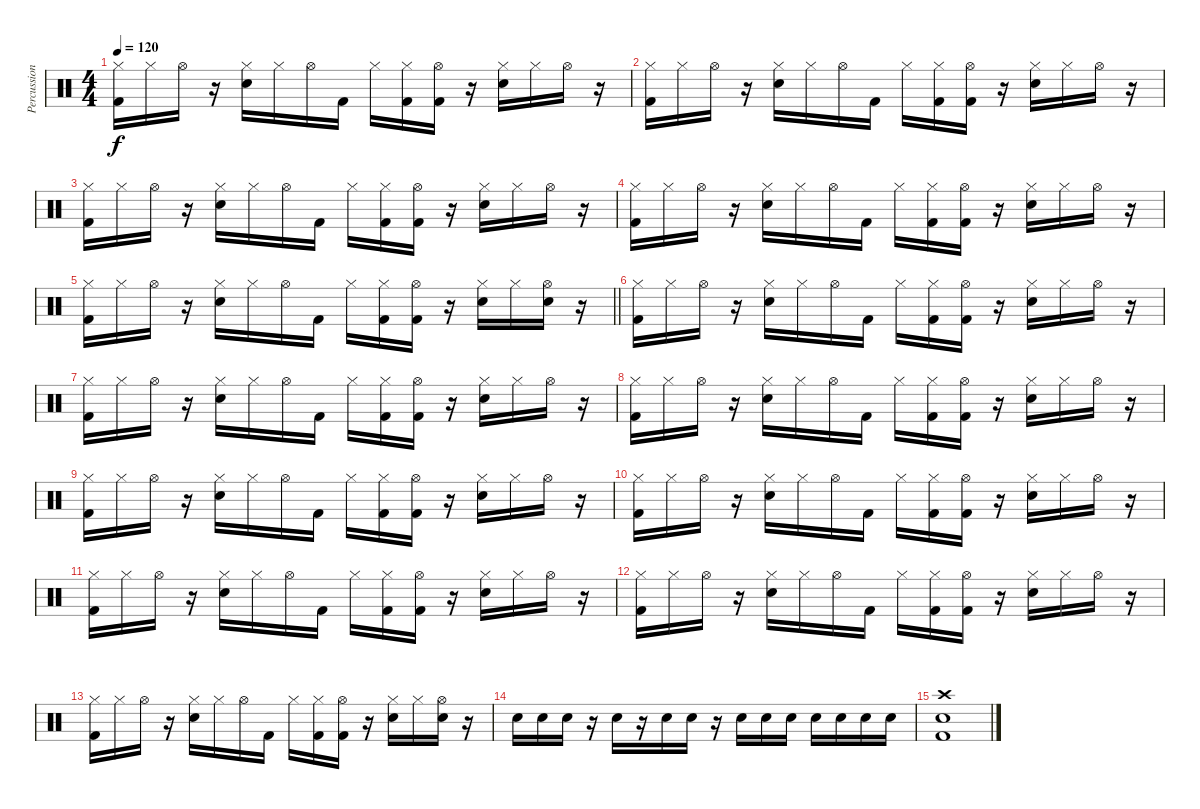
\track ("Percussion" "Percussion") {instrument percussion}
\staff {score}
\articulation defaults
\ts (4 4)
\tempo 120
\clef neutral
\ks c
("Hi-Hat (closed)" "Kick (hit) 2").16{dy f} "Hi-Hat (closed)".16 "Hi-Hat (open)".16 r.16 ("Hi-Hat (closed)" "Snare (hit) 2").16 "Hi-Hat (closed)".16 "Hi-Hat (open)".16 "Kick (hit) 2".16 "Hi-Hat (closed)".16 ("Hi-Hat (closed)" "Kick (hit) 2").16 ("Hi-Hat (open)" "Kick (hit) 2").16 r.16 ("Hi-Hat (closed)" "Snare (hit) 2").16 "Hi-Hat (closed)".16 "Hi-Hat (open)".16 r.16 |
("Hi-Hat (closed)" "Kick (hit) 2").16 "Hi-Hat (closed)".16 "Hi-Hat (open)".16 r.16 ("Hi-Hat (closed)" "Snare (hit) 2").16 "Hi-Hat (closed)".16 "Hi-Hat (open)".16 "Kick (hit) 2".16 "Hi-Hat (closed)".16 ("Hi-Hat (closed)" "Kick (hit) 2").16 ("Hi-Hat (open)" "Kick (hit) 2").16 r.16 ("Hi-Hat (closed)" "Snare (hit) 2").16 "Hi-Hat (closed)".16 "Hi-Hat (open)".16 r.16 |
("Hi-Hat (closed)" "Kick (hit) 2").16 "Hi-Hat (closed)".16 "Hi-Hat (open)".16 r.16 ("Hi-Hat (closed)" "Snare (hit) 2").16 "Hi-Hat (closed)".16 "Hi-Hat (open)".16 "Kick (hit) 2".16 "Hi-Hat (closed)".16 ("Hi-Hat (closed)" "Kick (hit) 2").16 ("Hi-Hat (open)" "Kick (hit) 2").16 r.16 ("Hi-Hat (closed)" "Snare (hit) 2").16 "Hi-Hat (closed)".16 "Hi-Hat (open)".16 r.16 |
("Hi-Hat (closed)" "Kick (hit) 2").16 "Hi-Hat (closed)".16 "Hi-Hat (open)".16 r.16 ("Hi-Hat (closed)" "Snare (hit) 2").16 "Hi-Hat (closed)".16 "Hi-Hat (open)".16 "Kick (hit) 2".16 "Hi-Hat (closed)".16 ("Hi-Hat (closed)" "Kick (hit) 2").16 ("Hi-Hat (open)" "Kick (hit) 2").16 r.16 ("Hi-Hat (closed)" "Snare (hit) 2").16 "Hi-Hat (closed)".16 "Hi-Hat (open)".16 r.16 |
\barLineRight lightlight
("Hi-Hat (closed)" "Kick (hit) 2").16 "Hi-Hat (closed)".16 "Hi-Hat (open)".16 r.16 ("Hi-Hat (closed)" "Snare (hit) 2").16 "Hi-Hat (closed)".16 "Hi-Hat (open)".16 "Kick (hit) 2".16 "Hi-Hat (closed)".16 ("Hi-Hat (closed)" "Kick (hit) 2").16 ("Hi-Hat (open)" "Kick (hit) 2").16 r.16 ("Hi-Hat (closed)" "Snare (hit) 2").16 "Hi-Hat (closed)".16 ("Hi-Hat (open)" "Snare (hit) 2").16 r.16 |
("Hi-Hat (closed)" "Kick (hit) 2").16 "Hi-Hat (closed)".16 "Hi-Hat (open)".16 r.16 ("Hi-Hat (closed)" "Snare (hit) 2").16 "Hi-Hat (closed)".16 "Hi-Hat (open)".16 "Kick (hit) 2".16 "Hi-Hat (closed)".16 ("Hi-Hat (closed)" "Kick (hit) 2").16 ("Hi-Hat (open)" "Kick (hit) 2").16 r.16 ("Hi-Hat (closed)" "Snare (hit) 2").16 "Hi-Hat (closed)".16 "Hi-Hat (open)".16 r.16 |
("Hi-Hat (closed)" "Kick (hit) 2").16 "Hi-Hat (closed)".16 "Hi-Hat (open)".16 r.16 ("Hi-Hat (closed)" "Snare (hit) 2").16 "Hi-Hat (closed)".16 "Hi-Hat (open)".16 "Kick (hit) 2".16 "Hi-Hat (closed)".16 ("Hi-Hat (closed)" "Kick (hit) 2").16 ("Hi-Hat (open)" "Kick (hit) 2").16 r.16 ("Hi-Hat (closed)" "Snare (hit) 2").16 "Hi-Hat (closed)".16 "Hi-Hat (open)".16 r.16 |
("Hi-Hat (closed)" "Kick (hit) 2").16 "Hi-Hat (closed)".16 "Hi-Hat (open)".16 r.16 ("Hi-Hat (closed)" "Snare (hit) 2").16 "Hi-Hat (closed)".16 "Hi-Hat (open)".16 "Kick (hit) 2".16 "Hi-Hat (closed)".16 ("Hi-Hat (closed)" "Kick (hit) 2").16 ("Hi-Hat (open)" "Kick (hit) 2").16 r.16 ("Hi-Hat (closed)" "Snare (hit) 2").16 "Hi-Hat (closed)".16 "Hi-Hat (open)".16 r.16 |
("Hi-Hat (closed)" "Kick (hit) 2").16 "Hi-Hat (closed)".16 "Hi-Hat (open)".16 r.16 ("Hi-Hat (closed)" "Snare (hit) 2").16 "Hi-Hat (closed)".16 "Hi-Hat (open)".16 "Kick (hit) 2".16 "Hi-Hat (closed)".16 ("Hi-Hat (closed)" "Kick (hit) 2").16 ("Hi-Hat (open)" "Kick (hit) 2").16 r.16 ("Hi-Hat (closed)" "Snare (hit) 2").16 "Hi-Hat (closed)".16 "Hi-Hat (open)".16 r.16 |
("Hi-Hat (closed)" "Kick (hit) 2").16 "Hi-Hat (closed)".16 "Hi-Hat (open)".16 r.16 ("Hi-Hat (closed)" "Snare (hit) 2").16 "Hi-Hat (closed)".16 "Hi-Hat (open)".16 "Kick (hit) 2".16 "Hi-Hat (closed)".16 ("Hi-Hat (closed)" "Kick (hit) 2").16 ("Hi-Hat (open)" "Kick (hit) 2").16 r.16 ("Hi-Hat (closed)" "Snare (hit) 2").16 "Hi-Hat (closed)".16 "Hi-Hat (open)".16 r.16 |
("Hi-Hat (closed)" "Kick (hit) 2").16 "Hi-Hat (closed)".16 "Hi-Hat (open)".16 r.16 ("Hi-Hat (closed)" "Snare (hit) 2").16 "Hi-Hat (closed)".16 "Hi-Hat (open)".16 "Kick (hit) 2".16 "Hi-Hat (closed)".16 ("Hi-Hat (closed)" "Kick (hit) 2").16 ("Hi-Hat (open)" "Kick (hit) 2").16 r.16 ("Hi-Hat (closed)" "Snare (hit) 2").16 "Hi-Hat (closed)".16 "Hi-Hat (open)".16 r.16 |
("Hi-Hat (closed)" "Kick (hit) 2").16 "Hi-Hat (closed)".16 "Hi-Hat (open)".16 r.16 ("Hi-Hat (closed)" "Snare (hit) 2").16 "Hi-Hat (closed)".16 "Hi-Hat (open)".16 "Kick (hit) 2".16 "Hi-Hat (closed)".16 ("Hi-Hat (closed)" "Kick (hit) 2").16 ("Hi-Hat (open)" "Kick (hit) 2").16 r.16 ("Hi-Hat (closed)" "Snare (hit) 2").16 "Hi-Hat (closed)".16 "Hi-Hat (open)".16 r.16 |
("Hi-Hat (closed)" "Kick (hit) 2").16 "Hi-Hat (closed)".16 "Hi-Hat (open)".16 r.16 ("Hi-Hat (closed)" "Snare (hit) 2").16 "Hi-Hat (closed)".16 "Hi-Hat (open)".16 "Kick (hit) 2".16 "Hi-Hat (closed)".16 ("Hi-Hat (closed)" "Kick (hit) 2").16 ("Hi-Hat (open)" "Kick (hit) 2").16 r.16 ("Hi-Hat (closed)" "Snare (hit) 2").16 "Hi-Hat (closed)".16 ("Hi-Hat (open)" "Snare (hit) 2").16 r.16 |
"Snare (hit) 2".16 "Snare (hit) 2".16 "Snare (hit) 2".16 r.16 "Snare (hit) 2".16 r.16 "Snare (hit) 2".16 "Snare (hit) 2".16 r.16 "Snare (hit) 2".16 "Snare (hit) 2".16 "Snare (hit) 2".16 "Snare (hit) 2".16 "Snare (hit) 2".16 "Snare (hit) 2".16 "Snare (hit) 2".16 |
("Crash high (hit)" "Electric Snare (hit)" "Kick (hit) 2").1
